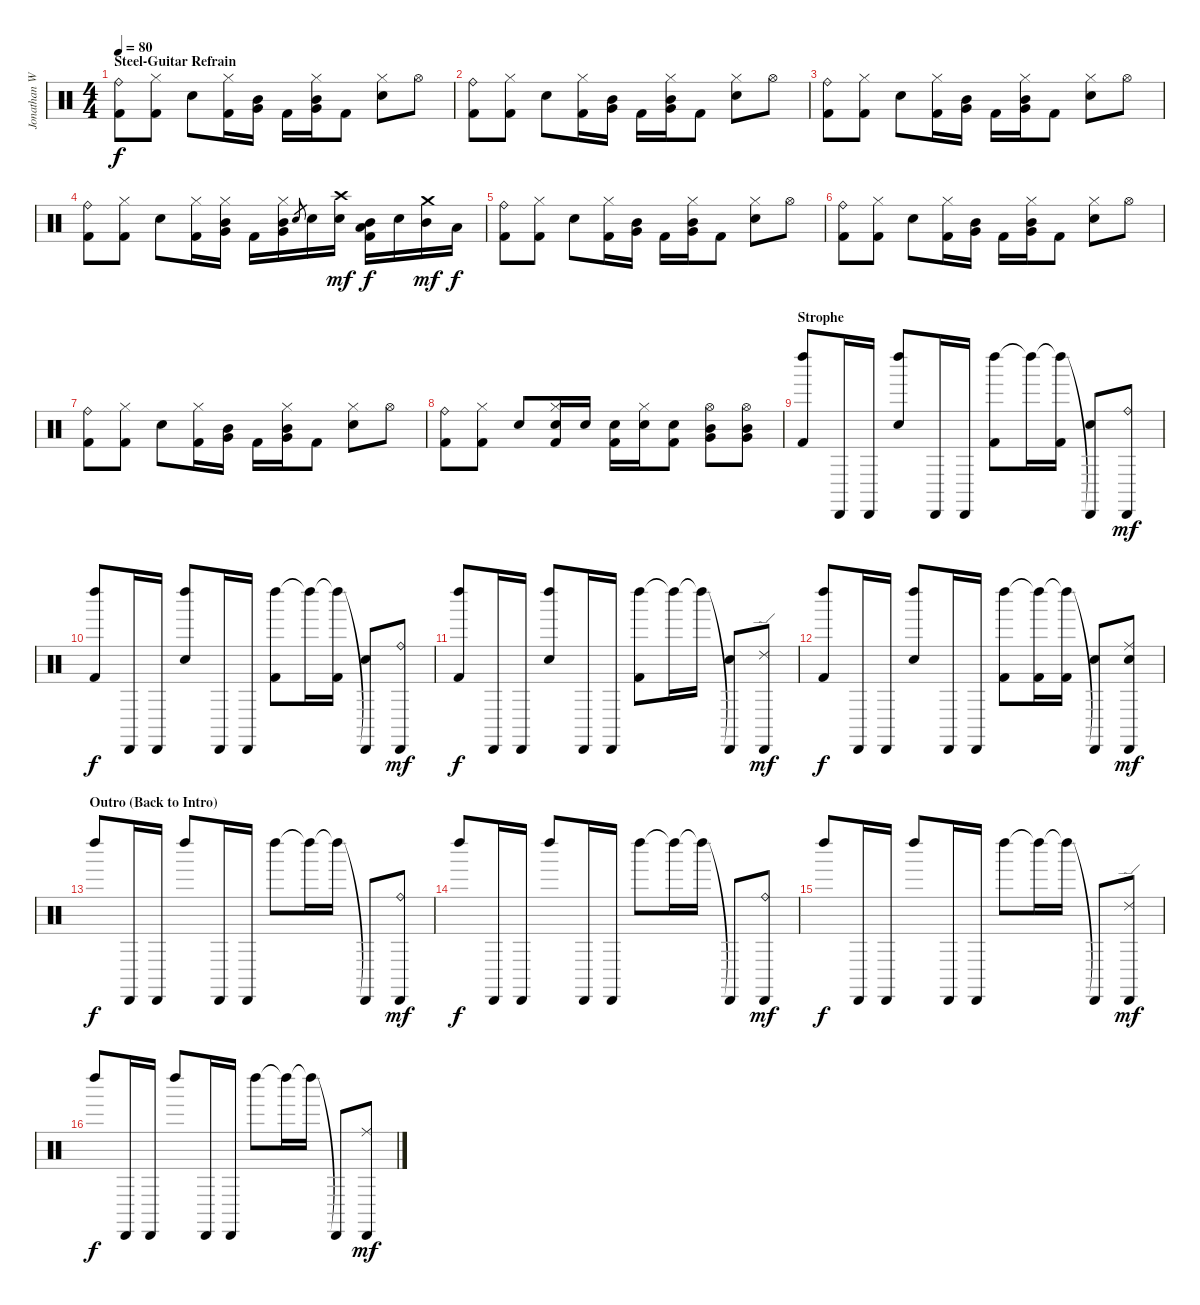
\track ("Jonathan Wenzel" "Jonathan W") {instrument percussion}
\staff {score}
\articulation defaults
\ts (4 4)
\section ("" "Steel-Guitar Refrain")
\tempo 80
\clef neutral
\ks c
("Ride (bell)" "Kick (hit) 2").8{dy f volume 13} ("Hi-Hat (closed)" "Kick (hit) 2").8 "Snare (hit) 2".8 ("Hi-Hat (closed)" "Kick (hit) 2").16 ("Mid Tom (hit)" "Very Low Tom (hit)").16 "Kick (hit) 2".16 ("Hi-Hat (closed)" "Mid Tom (hit)" "Very Low Tom (hit)").16 "Kick (hit) 2".8 ("Hi-Hat (closed)" "Snare (hit) 2").8 "Hi-Hat (open)".8 |
("Ride (bell)" "Kick (hit) 2").8 ("Hi-Hat (closed)" "Kick (hit) 2").8 "Snare (hit) 2".8 ("Hi-Hat (closed)" "Kick (hit) 2").16 ("Mid Tom (hit)" "Very Low Tom (hit)").16 "Kick (hit) 2".16 ("Hi-Hat (closed)" "Mid Tom (hit)" "Very Low Tom (hit)").16 "Kick (hit) 2".8 ("Hi-Hat (closed)" "Snare (hit) 2").8 "Hi-Hat (open)".8 |
("Ride (bell)" "Kick (hit) 2").8 ("Hi-Hat (closed)" "Kick (hit) 2").8 "Snare (hit) 2".8 ("Hi-Hat (closed)" "Kick (hit) 2").16 ("Mid Tom (hit)" "Very Low Tom (hit)").16 "Kick (hit) 2".16 ("Hi-Hat (closed)" "Mid Tom (hit)" "Very Low Tom (hit)").16 "Kick (hit) 2".8 ("Hi-Hat (closed)" "Snare (hit) 2").8 "Hi-Hat (open)".8 |
("Ride (bell)" "Kick (hit) 2").8 ("Hi-Hat (closed)" "Kick (hit) 2").8 "Snare (hit) 2".8 ("Hi-Hat (closed)" "Kick (hit) 2").16 ("Hi-Hat (closed)" "Mid Tom (hit)" "Very Low Tom (hit)").16 "Kick (hit) 2".16 ("Hi-Hat (closed)" "Mid Tom (hit)" "Very Low Tom (hit)").16 "Electric Snare (hit)".8{gr} "Electric Snare (hit)".16 ("Crash high (hit)" "Electric Snare (hit)").16{dy mf} ("Mid Tom (hit)" "Low Floor Tom (hit)" "Kick (hit) 2").16{dy f} "Electric Snare (hit)".16 ("Crash medium (hit)" "Mid Tom (hit)").16{dy mf} "Low Floor Tom (hit)".16{dy f} |
("Ride (bell)" "Kick (hit) 2").8 ("Hi-Hat (closed)" "Kick (hit) 2").8 "Snare (hit) 2".8 ("Hi-Hat (closed)" "Kick (hit) 2").16 ("Mid Tom (hit)" "Very Low Tom (hit)").16 "Kick (hit) 2".16 ("Hi-Hat (closed)" "Mid Tom (hit)" "Very Low Tom (hit)").16 "Kick (hit) 2".8 ("Hi-Hat (closed)" "Snare (hit) 2").8 "Hi-Hat (open)".8 |
("Ride (bell)" "Kick (hit) 2").8 ("Hi-Hat (closed)" "Kick (hit) 2").8 "Snare (hit) 2".8 ("Hi-Hat (closed)" "Kick (hit) 2").16 ("Mid Tom (hit)" "Very Low Tom (hit)").16 "Kick (hit) 2".16 ("Hi-Hat (closed)" "Mid Tom (hit)" "Very Low Tom (hit)").16 "Kick (hit) 2".8 ("Hi-Hat (closed)" "Snare (hit) 2").8 "Hi-Hat (open)".8 |
("Ride (bell)" "Kick (hit) 2").8 ("Hi-Hat (closed)" "Kick (hit) 2").8 "Snare (hit) 2".8 ("Hi-Hat (closed)" "Kick (hit) 2").16 ("Mid Tom (hit)" "Very Low Tom (hit)").16 "Kick (hit) 2".16 ("Hi-Hat (closed)" "Mid Tom (hit)" "Very Low Tom (hit)").16 "Kick (hit) 2".8 ("Hi-Hat (closed)" "Snare (hit) 2").8 "Hi-Hat (open)".8 |
("Ride (bell)" "Kick (hit) 2").8 ("Hi-Hat (closed)" "Kick (hit) 2").8 "Snare (hit) 2".8 ("Hi-Hat (closed)" "Snare (hit) 2" "Kick (hit) 2").16 "Snare (hit) 2".16 ("Snare (hit) 2" "Kick (hit) 2").16 ("Hi-Hat (closed)" "Snare (hit) 2").16 ("Snare (hit) 2" "Kick (hit) 2").8 ("Hi-Hat (open)" "Mid Tom (hit)" "Very Low Tom (hit)").8 ("Hi-Hat (open)" "Mid Tom (hit)" "Very Low Tom (hit)").8 |
\section ("" "Strophe")
("Left Maraca (hit)" "Kick (hit) 2").8 "Cabasa (hit)".16 "Cabasa (hit)".16 ("Left Maraca (hit)" "Snare (hit) 2").8 "Cabasa (hit)".16 "Cabasa (hit)".16 ("Left Maraca (hit)" "Kick (hit) 2").8 "Left Maraca (hit)"{t}.16 ("Left Maraca (hit)"{t} "Kick (hit) 2").16 ("Cabasa (hit)"{t} "Snare (hit) 2").8 ("Cabasa (hit)" "Ride (bell)").8{dy mf} |
("Left Maraca (hit)" "Kick (hit) 2").8{dy f} "Cabasa (hit)".16 "Cabasa (hit)".16 ("Left Maraca (hit)" "Snare (hit) 2").8 "Cabasa (hit)".16 "Cabasa (hit)".16 ("Left Maraca (hit)" "Kick (hit) 2").8 "Left Maraca (hit)"{t}.16 ("Left Maraca (hit)"{t} "Kick (hit) 2").16 ("Cabasa (hit)"{t} "Snare (hit) 2").8 ("Cabasa (hit)" "Ride (bell)").8{dy mf} |
("Left Maraca (hit)" "Kick (hit) 2").8{dy f} "Cabasa (hit)".16 "Cabasa (hit)".16 ("Left Maraca (hit)" "Snare (hit) 2").8 "Cabasa (hit)".16 "Cabasa (hit)".16 ("Left Maraca (hit)" "Kick (hit) 2").8 "Left Maraca (hit)"{t}.16 "Left Maraca (hit)"{t}.16 ("Cabasa (hit)"{t} "Snare (hit) 2").8 ("Cabasa (hit)" "Ride (edge) 2").8{dy mf} |
("Left Maraca (hit)" "Kick (hit) 2").8{dy f} "Cabasa (hit)".16 "Cabasa (hit)".16 ("Left Maraca (hit)" "Snare (hit) 2").8 "Cabasa (hit)".16 "Cabasa (hit)".16 ("Left Maraca (hit)" "Kick (hit) 2").8 ("Left Maraca (hit)"{t} "Kick (hit) 2").16 ("Left Maraca (hit)"{t} "Kick (hit) 2").16 ("Cabasa (hit)"{t} "Snare (hit) 2").8 ("Cabasa (hit)" "Ride (middle)" "Snare (hit) 2").8{dy mf} |
\section ("" "Outro (Back to Intro)")
"Left Maraca (hit)".8{dy f} "Cabasa (hit)".16 "Cabasa (hit)".16 "Left Maraca (hit)".8 "Cabasa (hit)".16 "Cabasa (hit)".16 "Left Maraca (hit)".8 "Left Maraca (hit)"{t}.16 "Left Maraca (hit)"{t}.16 "Cabasa (hit)"{t}.8 ("Cabasa (hit)" "Ride (bell)").8{dy mf} |
"Left Maraca (hit)".8{dy f} "Cabasa (hit)".16 "Cabasa (hit)".16 "Left Maraca (hit)".8 "Cabasa (hit)".16 "Cabasa (hit)".16 "Left Maraca (hit)".8 "Left Maraca (hit)"{t}.16 "Left Maraca (hit)"{t}.16 "Cabasa (hit)"{t}.8 ("Cabasa (hit)" "Ride (bell)").8{dy mf} |
"Left Maraca (hit)".8{dy f} "Cabasa (hit)".16 "Cabasa (hit)".16 "Left Maraca (hit)".8 "Cabasa (hit)".16 "Cabasa (hit)".16 "Left Maraca (hit)".8 "Left Maraca (hit)"{t}.16 "Left Maraca (hit)"{t}.16 "Cabasa (hit)"{t}.8 ("Cabasa (hit)" "Ride (edge) 2").8{dy mf} |
"Left Maraca (hit)".8{dy f} "Cabasa (hit)".16 "Cabasa (hit)".16 "Left Maraca (hit)".8 "Cabasa (hit)".16 "Cabasa (hit)".16 "Left Maraca (hit)".8 "Left Maraca (hit)"{t}.16 "Left Maraca (hit)"{t}.16 "Cabasa (hit)"{t}.8 ("Cabasa (hit)" "Ride (middle)").8{dy mf}
